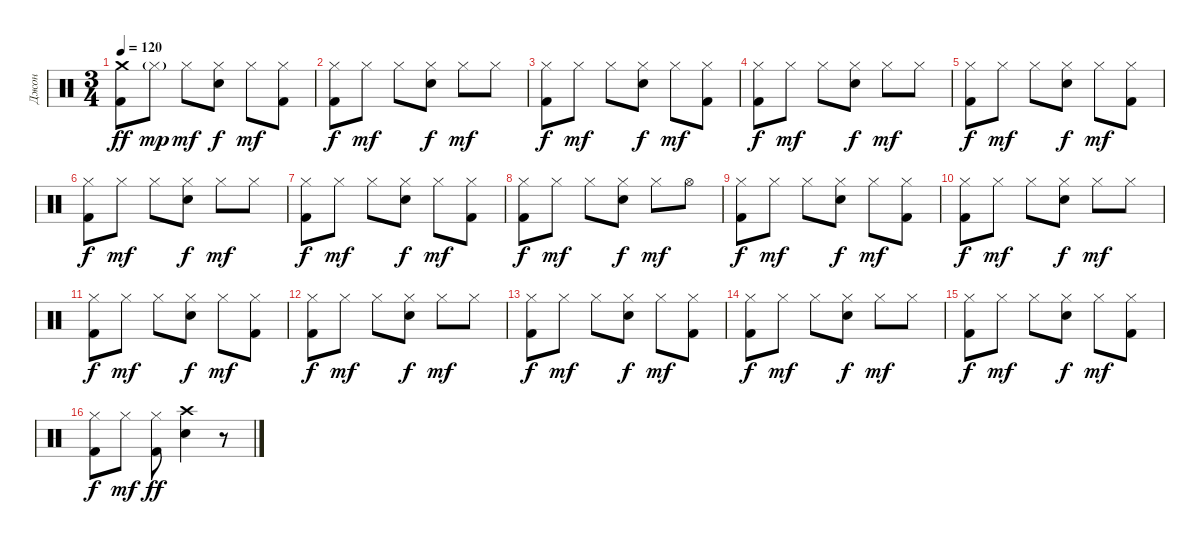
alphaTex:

\track ("Джон" "Джон") {instrument percussion}
\staff {score}
\articulation defaults
\ts (3 4)
\tempo 120
\clef neutral
\ks c
("Crash medium (hit)" "Kick (hit) 2").8{dy ff} "Hi-Hat (closed)"{g}.8{dy mp} "Hi-Hat (closed)".8{dy mf} ("Hi-Hat (closed)" "Electric Snare (hit)").8{dy f} "Hi-Hat (closed)".8{dy mf} ("Hi-Hat (closed)" "Kick (hit) 2").8 |
("Hi-Hat (closed)" "Kick (hit) 2").8{dy f} "Hi-Hat (closed)".8{dy mf} "Hi-Hat (closed)".8 ("Hi-Hat (closed)" "Electric Snare (hit)").8{dy f} "Hi-Hat (closed)".8{dy mf} "Hi-Hat (closed)".8 |
("Hi-Hat (closed)" "Kick (hit) 2").8{dy f} "Hi-Hat (closed)".8{dy mf} "Hi-Hat (closed)".8 ("Hi-Hat (closed)" "Electric Snare (hit)").8{dy f} "Hi-Hat (closed)".8{dy mf} ("Hi-Hat (closed)" "Kick (hit) 2").8 |
("Hi-Hat (closed)" "Kick (hit) 2").8{dy f} "Hi-Hat (closed)".8{dy mf} "Hi-Hat (closed)".8 ("Hi-Hat (closed)" "Electric Snare (hit)").8{dy f} "Hi-Hat (closed)".8{dy mf} "Hi-Hat (closed)".8 |
("Hi-Hat (closed)" "Kick (hit) 2").8{dy f} "Hi-Hat (closed)".8{dy mf} "Hi-Hat (closed)".8 ("Hi-Hat (closed)" "Electric Snare (hit)").8{dy f} "Hi-Hat (closed)".8{dy mf} ("Hi-Hat (closed)" "Kick (hit) 2").8 |
("Hi-Hat (closed)" "Kick (hit) 2").8{dy f} "Hi-Hat (closed)".8{dy mf} "Hi-Hat (closed)".8 ("Hi-Hat (closed)" "Electric Snare (hit)").8{dy f} "Hi-Hat (closed)".8{dy mf} "Hi-Hat (closed)".8 |
("Hi-Hat (closed)" "Kick (hit) 2").8{dy f} "Hi-Hat (closed)".8{dy mf} "Hi-Hat (closed)".8 ("Hi-Hat (closed)" "Electric Snare (hit)").8{dy f} "Hi-Hat (closed)".8{dy mf} ("Hi-Hat (closed)" "Kick (hit) 2").8 |
("Hi-Hat (closed)" "Kick (hit) 2").8{dy f} "Hi-Hat (closed)".8{dy mf} "Hi-Hat (closed)".8 ("Hi-Hat (closed)" "Electric Snare (hit)").8{dy f} "Hi-Hat (closed)".8{dy mf} "Hi-Hat (open)".8 |
("Hi-Hat (closed)" "Kick (hit) 2").8{dy f} "Hi-Hat (closed)".8{dy mf} "Hi-Hat (closed)".8 ("Hi-Hat (closed)" "Electric Snare (hit)").8{dy f} "Hi-Hat (closed)".8{dy mf} ("Hi-Hat (closed)" "Kick (hit) 2").8 |
("Hi-Hat (closed)" "Kick (hit) 2").8{dy f} "Hi-Hat (closed)".8{dy mf} "Hi-Hat (closed)".8 ("Hi-Hat (closed)" "Electric Snare (hit)").8{dy f} "Hi-Hat (closed)".8{dy mf} "Hi-Hat (closed)".8 |
("Hi-Hat (closed)" "Kick (hit) 2").8{dy f} "Hi-Hat (closed)".8{dy mf} "Hi-Hat (closed)".8 ("Hi-Hat (closed)" "Electric Snare (hit)").8{dy f} "Hi-Hat (closed)".8{dy mf} ("Hi-Hat (closed)" "Kick (hit) 2").8 |
("Hi-Hat (closed)" "Kick (hit) 2").8{dy f} "Hi-Hat (closed)".8{dy mf} "Hi-Hat (closed)".8 ("Hi-Hat (closed)" "Electric Snare (hit)").8{dy f} "Hi-Hat (closed)".8{dy mf} "Hi-Hat (closed)".8 |
("Hi-Hat (closed)" "Kick (hit) 2").8{dy f} "Hi-Hat (closed)".8{dy mf} "Hi-Hat (closed)".8 ("Hi-Hat (closed)" "Electric Snare (hit)").8{dy f} "Hi-Hat (closed)".8{dy mf} ("Hi-Hat (closed)" "Kick (hit) 2").8 |
("Hi-Hat (closed)" "Kick (hit) 2").8{dy f} "Hi-Hat (closed)".8{dy mf} "Hi-Hat (closed)".8 ("Hi-Hat (closed)" "Electric Snare (hit)").8{dy f} "Hi-Hat (closed)".8{dy mf} "Hi-Hat (closed)".8 |
("Hi-Hat (closed)" "Kick (hit) 2").8{dy f} "Hi-Hat (closed)".8{dy mf} "Hi-Hat (closed)".8 ("Hi-Hat (closed)" "Electric Snare (hit)").8{dy f} "Hi-Hat (closed)".8{dy mf} ("Hi-Hat (closed)" "Kick (hit) 2").8 |
("Hi-Hat (closed)" "Kick (hit) 2").8{dy f} "Hi-Hat (closed)".8{dy mf} ("Hi-Hat (closed)" "Kick (hit) 2").8{dy ff} ("Crash high (hit)" "Electric Snare (hit)").4 r.8
